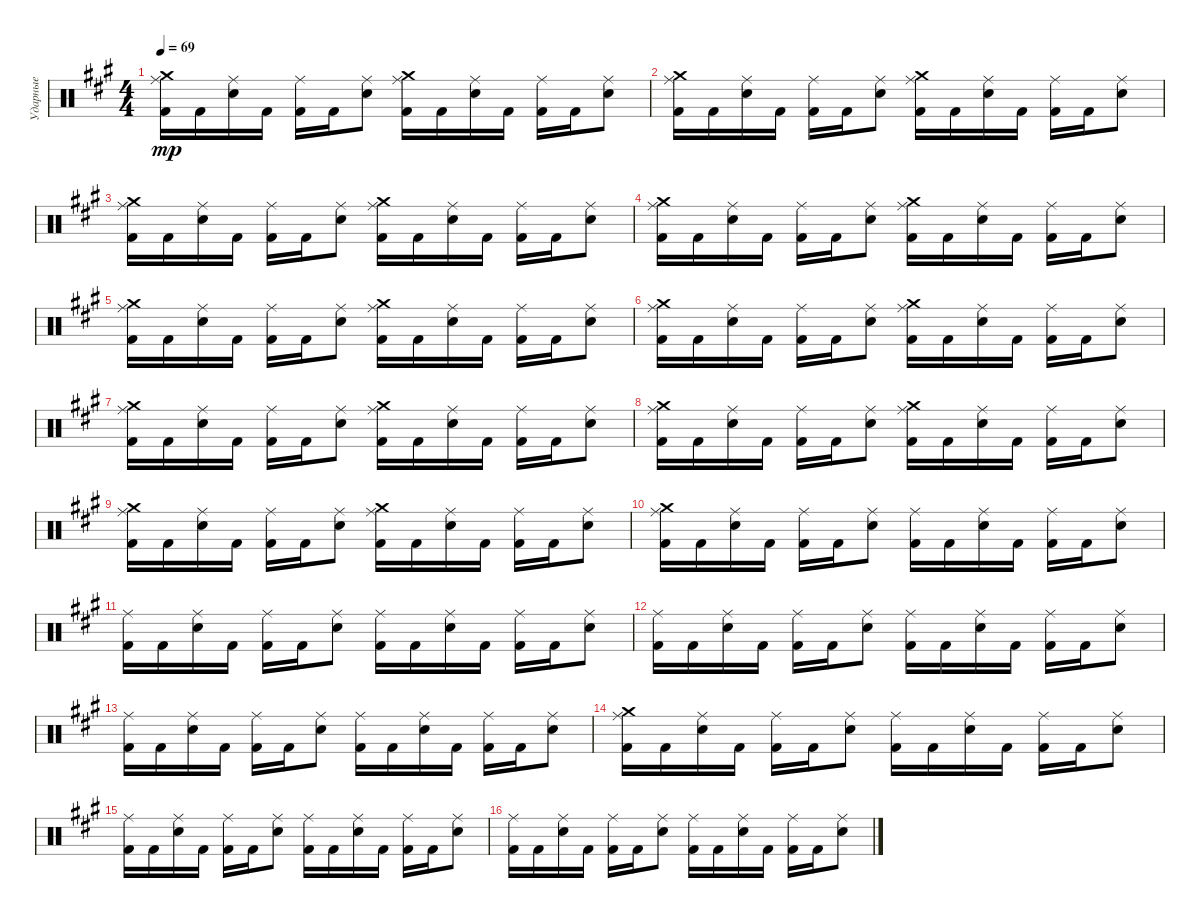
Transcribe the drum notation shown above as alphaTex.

\track ("Ударные" "Ударные") {instrument percussion}
\staff {score}
\articulation defaults
\ts (4 4)
\tempo 69
\clef neutral
\ks a
("Kick (hit) 2" "Ride (middle)" "Crash medium (hit)").16{dy mp} "Kick (hit) 2".16 ("Electric Snare (hit)" "Ride (middle)").16 "Kick (hit) 2".16 ("Kick (hit) 2" "Ride (middle)").16 "Kick (hit) 2".16 ("Electric Snare (hit)" "Ride (middle)").8 ("Kick (hit) 2" "Ride (middle)" "Crash medium (hit)").16 "Kick (hit) 2".16 ("Electric Snare (hit)" "Ride (middle)").16 "Kick (hit) 2".16 ("Kick (hit) 2" "Ride (middle)").16 "Kick (hit) 2".16 ("Electric Snare (hit)" "Ride (middle)").8 |
("Kick (hit) 2" "Ride (middle)" "Crash medium (hit)").16 "Kick (hit) 2".16 ("Electric Snare (hit)" "Ride (middle)").16 "Kick (hit) 2".16 ("Kick (hit) 2" "Ride (middle)").16 "Kick (hit) 2".16 ("Electric Snare (hit)" "Ride (middle)").8 ("Kick (hit) 2" "Ride (middle)" "Crash medium (hit)").16 "Kick (hit) 2".16 ("Electric Snare (hit)" "Ride (middle)").16 "Kick (hit) 2".16 ("Kick (hit) 2" "Ride (middle)").16 "Kick (hit) 2".16 ("Electric Snare (hit)" "Ride (middle)").8 |
("Kick (hit) 2" "Ride (middle)" "Crash medium (hit)").16 "Kick (hit) 2".16 ("Electric Snare (hit)" "Ride (middle)").16 "Kick (hit) 2".16 ("Kick (hit) 2" "Ride (middle)").16 "Kick (hit) 2".16 ("Electric Snare (hit)" "Ride (middle)").8 ("Kick (hit) 2" "Ride (middle)" "Crash medium (hit)").16 "Kick (hit) 2".16 ("Electric Snare (hit)" "Ride (middle)").16 "Kick (hit) 2".16 ("Kick (hit) 2" "Ride (middle)").16 "Kick (hit) 2".16 ("Electric Snare (hit)" "Ride (middle)").8 |
("Kick (hit) 2" "Ride (middle)" "Crash medium (hit)").16 "Kick (hit) 2".16 ("Electric Snare (hit)" "Ride (middle)").16 "Kick (hit) 2".16 ("Kick (hit) 2" "Ride (middle)").16 "Kick (hit) 2".16 ("Electric Snare (hit)" "Ride (middle)").8 ("Kick (hit) 2" "Ride (middle)" "Crash medium (hit)").16 "Kick (hit) 2".16 ("Electric Snare (hit)" "Ride (middle)").16 "Kick (hit) 2".16 ("Kick (hit) 2" "Ride (middle)").16 "Kick (hit) 2".16 ("Electric Snare (hit)" "Ride (middle)").8 |
("Kick (hit) 2" "Ride (middle)" "Crash medium (hit)").16 "Kick (hit) 2".16 ("Electric Snare (hit)" "Ride (middle)").16 "Kick (hit) 2".16 ("Kick (hit) 2" "Ride (middle)").16 "Kick (hit) 2".16 ("Electric Snare (hit)" "Ride (middle)").8 ("Kick (hit) 2" "Ride (middle)" "Crash medium (hit)").16 "Kick (hit) 2".16 ("Electric Snare (hit)" "Ride (middle)").16 "Kick (hit) 2".16 ("Kick (hit) 2" "Ride (middle)").16 "Kick (hit) 2".16 ("Electric Snare (hit)" "Ride (middle)").8 |
("Kick (hit) 2" "Ride (middle)" "Crash medium (hit)").16 "Kick (hit) 2".16 ("Electric Snare (hit)" "Ride (middle)").16 "Kick (hit) 2".16 ("Kick (hit) 2" "Ride (middle)").16 "Kick (hit) 2".16 ("Electric Snare (hit)" "Ride (middle)").8 ("Kick (hit) 2" "Ride (middle)" "Crash medium (hit)").16 "Kick (hit) 2".16 ("Electric Snare (hit)" "Ride (middle)").16 "Kick (hit) 2".16 ("Kick (hit) 2" "Ride (middle)").16 "Kick (hit) 2".16 ("Electric Snare (hit)" "Ride (middle)").8 |
("Kick (hit) 2" "Ride (middle)" "Crash medium (hit)").16 "Kick (hit) 2".16 ("Electric Snare (hit)" "Ride (middle)").16 "Kick (hit) 2".16 ("Kick (hit) 2" "Ride (middle)").16 "Kick (hit) 2".16 ("Electric Snare (hit)" "Ride (middle)").8 ("Kick (hit) 2" "Ride (middle)" "Crash medium (hit)").16 "Kick (hit) 2".16 ("Electric Snare (hit)" "Ride (middle)").16 "Kick (hit) 2".16 ("Kick (hit) 2" "Ride (middle)").16 "Kick (hit) 2".16 ("Electric Snare (hit)" "Ride (middle)").8 |
("Kick (hit) 2" "Ride (middle)" "Crash medium (hit)").16 "Kick (hit) 2".16 ("Electric Snare (hit)" "Ride (middle)").16 "Kick (hit) 2".16 ("Kick (hit) 2" "Ride (middle)").16 "Kick (hit) 2".16 ("Electric Snare (hit)" "Ride (middle)").8 ("Kick (hit) 2" "Ride (middle)" "Crash medium (hit)").16 "Kick (hit) 2".16 ("Electric Snare (hit)" "Ride (middle)").16 "Kick (hit) 2".16 ("Kick (hit) 2" "Ride (middle)").16 "Kick (hit) 2".16 ("Electric Snare (hit)" "Ride (middle)").8 |
("Kick (hit) 2" "Ride (middle)" "Crash medium (hit)").16 "Kick (hit) 2".16 ("Electric Snare (hit)" "Ride (middle)").16 "Kick (hit) 2".16 ("Kick (hit) 2" "Ride (middle)").16 "Kick (hit) 2".16 ("Electric Snare (hit)" "Ride (middle)").8 ("Kick (hit) 2" "Ride (middle)" "Crash medium (hit)").16 "Kick (hit) 2".16 ("Electric Snare (hit)" "Ride (middle)").16 "Kick (hit) 2".16 ("Kick (hit) 2" "Ride (middle)").16 "Kick (hit) 2".16 ("Electric Snare (hit)" "Ride (middle)").8 |
("Kick (hit) 2" "Ride (middle)" "Crash medium (hit)").16 "Kick (hit) 2".16 ("Electric Snare (hit)" "Ride (middle)").16 "Kick (hit) 2".16 ("Kick (hit) 2" "Ride (middle)").16 "Kick (hit) 2".16 ("Electric Snare (hit)" "Ride (middle)").8 ("Kick (hit) 2" "Ride (middle)").16 "Kick (hit) 2".16 ("Electric Snare (hit)" "Ride (middle)").16 "Kick (hit) 2".16 ("Kick (hit) 2" "Ride (middle)").16 "Kick (hit) 2".16 ("Electric Snare (hit)" "Ride (middle)").8 |
("Kick (hit) 2" "Ride (middle)").16 "Kick (hit) 2".16 ("Electric Snare (hit)" "Ride (middle)").16 "Kick (hit) 2".16 ("Kick (hit) 2" "Ride (middle)").16 "Kick (hit) 2".16 ("Electric Snare (hit)" "Ride (middle)").8 ("Kick (hit) 2" "Ride (middle)").16 "Kick (hit) 2".16 ("Electric Snare (hit)" "Ride (middle)").16 "Kick (hit) 2".16 ("Kick (hit) 2" "Ride (middle)").16 "Kick (hit) 2".16 ("Electric Snare (hit)" "Ride (middle)").8 |
("Kick (hit) 2" "Ride (middle)").16 "Kick (hit) 2".16 ("Electric Snare (hit)" "Ride (middle)").16 "Kick (hit) 2".16 ("Kick (hit) 2" "Ride (middle)").16 "Kick (hit) 2".16 ("Electric Snare (hit)" "Ride (middle)").8 ("Kick (hit) 2" "Ride (middle)").16 "Kick (hit) 2".16 ("Electric Snare (hit)" "Ride (middle)").16 "Kick (hit) 2".16 ("Kick (hit) 2" "Ride (middle)").16 "Kick (hit) 2".16 ("Electric Snare (hit)" "Ride (middle)").8 |
("Kick (hit) 2" "Ride (middle)").16 "Kick (hit) 2".16 ("Electric Snare (hit)" "Ride (middle)").16 "Kick (hit) 2".16 ("Kick (hit) 2" "Ride (middle)").16 "Kick (hit) 2".16 ("Electric Snare (hit)" "Ride (middle)").8 ("Kick (hit) 2" "Ride (middle)").16 "Kick (hit) 2".16 ("Electric Snare (hit)" "Ride (middle)").16 "Kick (hit) 2".16 ("Kick (hit) 2" "Ride (middle)").16 "Kick (hit) 2".16 ("Electric Snare (hit)" "Ride (middle)").8 |
("Kick (hit) 2" "Ride (middle)" "Crash medium (hit)").16 "Kick (hit) 2".16 ("Electric Snare (hit)" "Ride (middle)").16 "Kick (hit) 2".16 ("Kick (hit) 2" "Ride (middle)").16 "Kick (hit) 2".16 ("Electric Snare (hit)" "Ride (middle)").8 ("Kick (hit) 2" "Ride (middle)").16 "Kick (hit) 2".16 ("Electric Snare (hit)" "Ride (middle)").16 "Kick (hit) 2".16 ("Kick (hit) 2" "Ride (middle)").16 "Kick (hit) 2".16 ("Electric Snare (hit)" "Ride (middle)").8 |
("Kick (hit) 2" "Ride (middle)").16 "Kick (hit) 2".16 ("Electric Snare (hit)" "Ride (middle)").16 "Kick (hit) 2".16 ("Kick (hit) 2" "Ride (middle)").16 "Kick (hit) 2".16 ("Electric Snare (hit)" "Ride (middle)").8 ("Kick (hit) 2" "Ride (middle)").16 "Kick (hit) 2".16 ("Electric Snare (hit)" "Ride (middle)").16 "Kick (hit) 2".16 ("Kick (hit) 2" "Ride (middle)").16 "Kick (hit) 2".16 ("Electric Snare (hit)" "Ride (middle)").8 |
("Kick (hit) 2" "Ride (middle)").16 "Kick (hit) 2".16 ("Electric Snare (hit)" "Ride (middle)").16 "Kick (hit) 2".16 ("Kick (hit) 2" "Ride (middle)").16 "Kick (hit) 2".16 ("Electric Snare (hit)" "Ride (middle)").8 ("Kick (hit) 2" "Ride (middle)").16 "Kick (hit) 2".16 ("Electric Snare (hit)" "Ride (middle)").16 "Kick (hit) 2".16 ("Kick (hit) 2" "Ride (middle)").16 "Kick (hit) 2".16 ("Electric Snare (hit)" "Ride (middle)").8
